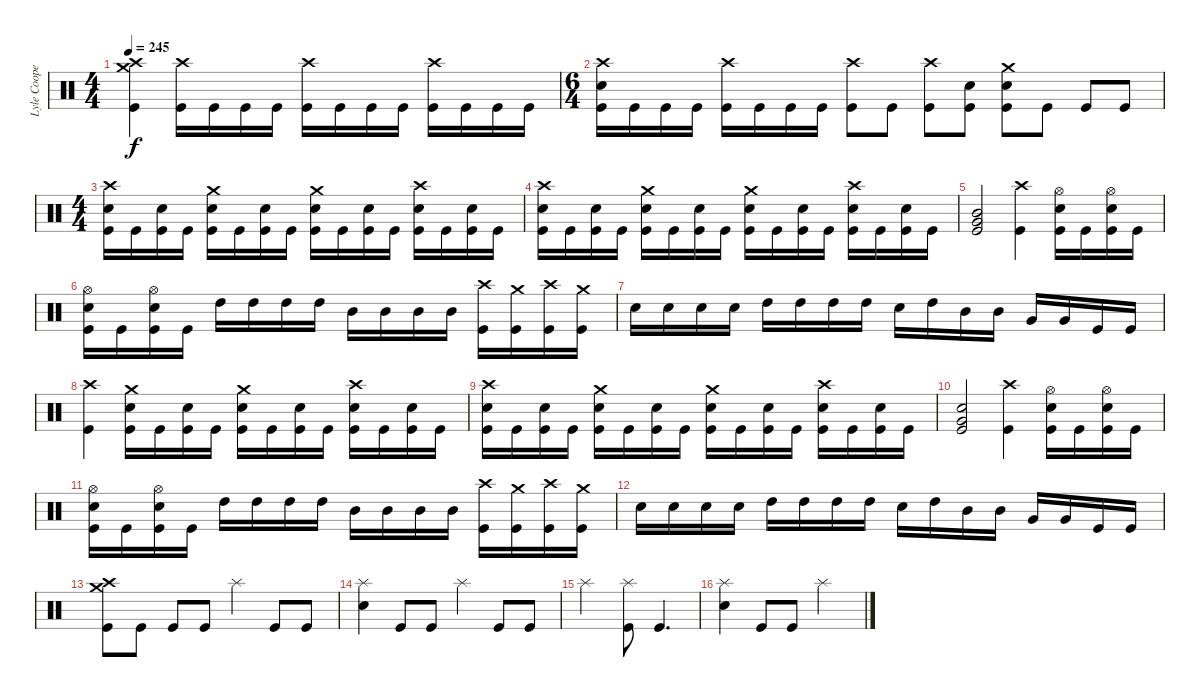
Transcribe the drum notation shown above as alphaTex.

\track ("Lyle Cooper" "Lyle Coope") {instrument percussion}
\staff {score}
\articulation defaults
\ts (4 4)
\tempo 245
\clef neutral
\ks c
("Crash high (hit)" "Crash medium (hit)" "Kick (hit)").4{dy f} ("Crash high (hit)" "Kick (hit)").16 "Kick (hit)".16 "Kick (hit)".16 "Kick (hit)".16 ("Crash high (hit)" "Kick (hit)").16 "Kick (hit)".16 "Kick (hit)".16 "Kick (hit)".16 ("Crash high (hit)" "Kick (hit)").16 "Kick (hit)".16 "Kick (hit)".16 "Kick (hit)".16 |
\ts (6 4)
("Crash high (hit)" "Snare (hit) 2" "Kick (hit)").16 "Kick (hit)".16 "Kick (hit)".16 "Kick (hit)".16 ("Crash high (hit)" "Kick (hit)").16 "Kick (hit)".16 "Kick (hit)".16 "Kick (hit)".16 ("Crash high (hit)" "Kick (hit)").8 "Kick (hit)".8 ("Crash high (hit)" "Kick (hit)").8 ("Snare (hit) 2" "Kick (hit)").8 ("Crash medium (hit)" "Snare (hit) 2" "Kick (hit)").8 "Kick (hit)".8 "Kick (hit)".8 "Kick (hit)".8 |
\ts (4 4)
("Crash high (hit)" "Snare (hit) 2" "Kick (hit)").16 "Kick (hit)".16 ("Snare (hit) 2" "Kick (hit)").16 "Kick (hit)".16 ("Crash medium (hit)" "Snare (hit) 2" "Kick (hit)").16 "Kick (hit)".16 ("Snare (hit) 2" "Kick (hit)").16 "Kick (hit)".16 ("Crash medium (hit)" "Snare (hit) 2" "Kick (hit)").16 "Kick (hit)".16 ("Snare (hit) 2" "Kick (hit)").16 "Kick (hit)".16 ("Crash high (hit)" "Snare (hit) 2" "Kick (hit)").16 "Kick (hit)".16 ("Snare (hit) 2" "Kick (hit)").16 "Kick (hit)".16 |
("Crash high (hit)" "Snare (hit) 2" "Kick (hit)").16 "Kick (hit)".16 ("Snare (hit) 2" "Kick (hit)").16 "Kick (hit)".16 ("Crash medium (hit)" "Snare (hit) 2" "Kick (hit)").16 "Kick (hit)".16 ("Snare (hit) 2" "Kick (hit)").16 "Kick (hit)".16 ("Crash medium (hit)" "Snare (hit) 2" "Kick (hit)").16 "Kick (hit)".16 ("Snare (hit) 2" "Kick (hit)").16 "Kick (hit)".16 ("Crash high (hit)" "Snare (hit) 2" "Kick (hit)").16 "Kick (hit)".16 ("Snare (hit) 2" "Kick (hit)").16 "Kick (hit)".16 |
("Very Low Tom (hit)" "Mid Tom (hit)" "Kick (hit)").2 ("Crash high (hit)" "Kick (hit)").4 ("Hi-Hat (open)" "Snare (hit) 2" "Kick (hit)").16 "Kick (hit)".16 ("Hi-Hat (open)" "Snare (hit) 2" "Kick (hit)").16 "Kick (hit)".16 |
("Hi-Hat (open)" "Snare (hit) 2" "Kick (hit)").16 "Kick (hit)".16 ("Hi-Hat (open)" "Snare (hit) 2" "Kick (hit)").16 "Kick (hit)".16 "High Tom (hit)".16 "High Tom (hit)".16 "High Tom (hit)".16 "High Tom (hit)".16 "Mid Tom (hit)".16 "Mid Tom (hit)".16 "Mid Tom (hit)".16 "Mid Tom (hit)".16 ("Crash high (hit)" "Kick (hit)").16 ("Crash medium (hit)" "Kick (hit)").16 ("Crash high (hit)" "Kick (hit)").16 ("Crash medium (hit)" "Kick (hit)").16 |
"Snare (hit) 2".16 "Snare (hit) 2".16 "Snare (hit) 2".16 "Snare (hit) 2".16 "High Tom (hit)".16 "High Tom (hit)".16 "High Tom (hit)".16 "High Tom (hit)".16 "Snare (hit) 2".16 "High Tom (hit)".16 "Mid Tom (hit)".16 "Mid Tom (hit)".16 "Very Low Tom (hit)".16 "Very Low Tom (hit)".16 "Kick (hit)".16 "Kick (hit)".16 |
("Crash high (hit)" "Kick (hit)").4 ("Crash medium (hit)" "Snare (hit) 2" "Kick (hit)").16 "Kick (hit)".16 ("Snare (hit) 2" "Kick (hit)").16 "Kick (hit)".16 ("Crash medium (hit)" "Snare (hit) 2" "Kick (hit)").16 "Kick (hit)".16 ("Snare (hit) 2" "Kick (hit)").16 "Kick (hit)".16 ("Crash high (hit)" "Snare (hit) 2" "Kick (hit)").16 "Kick (hit)".16 ("Snare (hit) 2" "Kick (hit)").16 "Kick (hit)".16 |
("Crash high (hit)" "Snare (hit) 2" "Kick (hit)").16 "Kick (hit)".16 ("Snare (hit) 2" "Kick (hit)").16 "Kick (hit)".16 ("Crash medium (hit)" "Snare (hit) 2" "Kick (hit)").16 "Kick (hit)".16 ("Snare (hit) 2" "Kick (hit)").16 "Kick (hit)".16 ("Crash medium (hit)" "Snare (hit) 2" "Kick (hit)").16 "Kick (hit)".16 ("Snare (hit) 2" "Kick (hit)").16 "Kick (hit)".16 ("Crash high (hit)" "Snare (hit) 2" "Kick (hit)").16 "Kick (hit)".16 ("Snare (hit) 2" "Kick (hit)").16 "Kick (hit)".16 |
("Very Low Tom (hit)" "Snare (hit) 2" "Kick (hit)").2 ("Crash high (hit)" "Kick (hit)").4 ("Hi-Hat (open)" "Snare (hit) 2" "Kick (hit)").16 "Kick (hit)".16 ("Hi-Hat (open)" "Snare (hit) 2" "Kick (hit)").16 "Kick (hit)".16 |
("Hi-Hat (open)" "Snare (hit) 2" "Kick (hit)").16 "Kick (hit)".16 ("Hi-Hat (open)" "Snare (hit) 2" "Kick (hit)").16 "Kick (hit)".16 "High Tom (hit)".16 "High Tom (hit)".16 "High Tom (hit)".16 "High Tom (hit)".16 "Mid Tom (hit)".16 "Mid Tom (hit)".16 "Mid Tom (hit)".16 "Mid Tom (hit)".16 ("Crash high (hit)" "Kick (hit)").16 ("Crash medium (hit)" "Kick (hit)").16 ("Crash high (hit)" "Kick (hit)").16 ("Crash medium (hit)" "Kick (hit)").16 |
"Snare (hit) 2".16 "Snare (hit) 2".16 "Snare (hit) 2".16 "Snare (hit) 2".16 "High Tom (hit)".16 "High Tom (hit)".16 "High Tom (hit)".16 "High Tom (hit)".16 "Snare (hit) 2".16 "High Tom (hit)".16 "Mid Tom (hit)".16 "Mid Tom (hit)".16 "Very Low Tom (hit)".16 "Very Low Tom (hit)".16 "Kick (hit)".16 "Kick (hit)".16 |
("Crash high (hit)" "Crash medium (hit)" "Kick (hit)").8 "Kick (hit)".8 "Kick (hit)".8 "Kick (hit)".8 "Splash (hit)".4 "Kick (hit)".8 "Kick (hit)".8 |
("Splash (hit)" "Snare (hit) 2").4 "Kick (hit)".8 "Kick (hit)".8 "Splash (hit)".4 "Kick (hit)".8 "Kick (hit)".8 |
"Splash (hit)".2 ("Splash (hit)" "Kick (hit)").8 "Kick (hit)".4{d} |
("Splash (hit)" "Snare (hit) 2").4 "Kick (hit)".8 "Kick (hit)".8 "Splash (hit)".2
